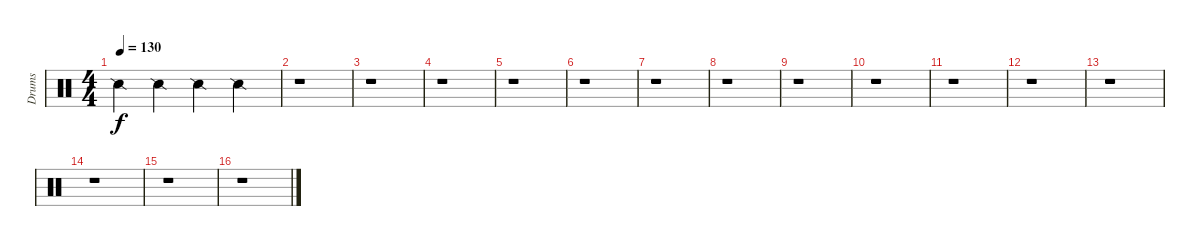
\track ("Drums" "Drums") {instrument percussion}
\staff {score}
\articulation defaults
\ts (4 4)
\tempo 130
\clef neutral
\ks c "Snare (side stick) 2".4{dy f} "Snare (side stick) 2".4 "Snare (side stick) 2".4 "Snare (side stick) 2".4
|
r.1 |
r.1 |
r.1 |
r.1 |
r.1 |
r.1 |
r.1 |
r.1 |
r.1 |
r.1 |
r.1 |
r.1 |
r.1 |
r.1 |
r.1
